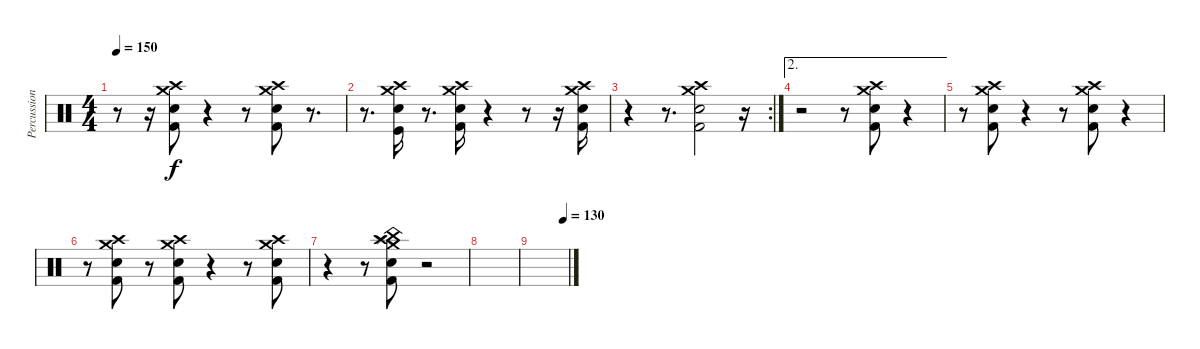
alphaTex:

\track ("Percussion" "Percussion") {instrument percussion}
\staff {score}
\articulation defaults
\ts (4 4)
\tempo 150
\clef neutral
\ks c
r.8{dy f} r.16 ("Crash high (hit)" "Kick (hit) 2" "Snare (hit) 2" "Crash medium (hit)").8 r.4 r.8 ("Crash high (hit)" "Kick (hit) 2" "Snare (hit) 2" "Crash medium (hit)").8 r.8{d} |
r.8{d} ("Crash high (hit)" "Kick (hit)" "Snare (hit) 2" "Crash medium (hit)").16 r.8{d} ("Crash high (hit)" "Kick (hit) 2" "Snare (hit) 2" "Crash medium (hit)").16 r.4 r.8 r.16 ("Crash high (hit)" "Kick (hit) 2" "Snare (hit) 2" "Crash medium (hit)").16 |
\rc 2
r.4 r.8{d} ("Crash high (hit)" "Kick (hit) 2" "Snare (hit) 2" "Crash medium (hit)").2 r.16 |
\ae 2
r.2 r.8 ("Crash high (hit)" "Kick (hit) 2" "Snare (hit) 2" "Crash medium (hit)").8 r.4 |
r.8 ("Crash high (hit)" "Kick (hit) 2" "Snare (hit) 2" "Crash medium (hit)").8 r.4 r.8 ("Crash high (hit)" "Kick (hit) 2" "Snare (hit) 2" "Crash medium (hit)").8 r.4 |
r.8 ("Crash high (hit)" "Kick (hit) 2" "Snare (hit) 2" "Crash medium (hit)").8 r.8 ("Crash high (hit)" "Kick (hit) 2" "Snare (hit) 2" "Crash medium (hit)").8 r.4 r.8 ("Crash high (hit)" "Kick (hit) 2" "Snare (hit) 2" "Crash medium (hit)").8 |
r.4 r.8 ("China (hit)" "Crash high (hit)" "Kick (hit) 2" "Snare (hit) 2" "Crash medium (hit)" "Splash (hit)").8 r.2 |
|
\tempo (130 0.875)
